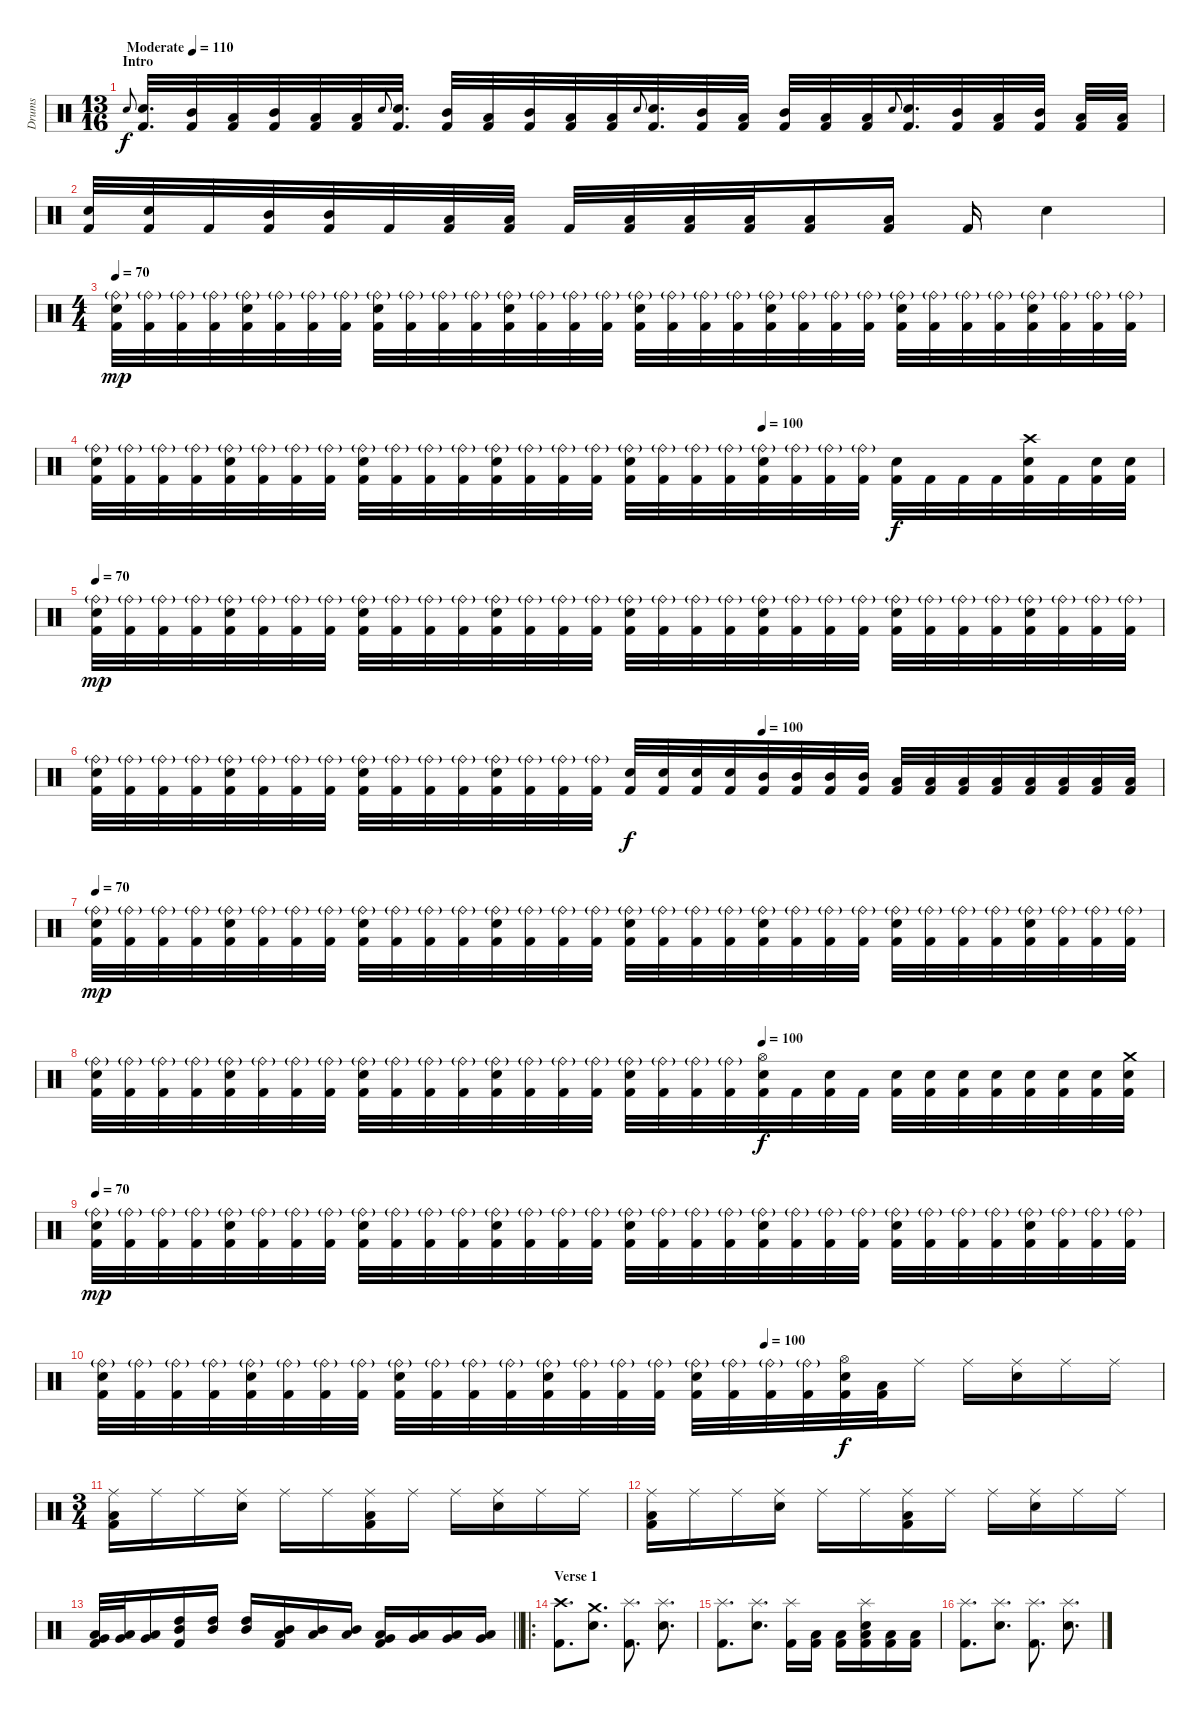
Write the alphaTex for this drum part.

\track ("Drums" "Drums") {instrument percussion}
\staff {score}
\articulation defaults
\ts (13 16)
\section ("" "Intro")
\tempo (110 "Moderate")
\clef neutral
\ks c "Electric Snare (hit)".8{gr onbeat dy f}
("Electric Snare (hit)" "Kick (hit) 2").32{d} ("Mid Tom (hit)" "Kick (hit) 2").32 ("Low Tom (hit)" "Kick (hit) 2").32 ("Mid Tom (hit)" "Kick (hit) 2").32 ("Low Tom (hit)" "Kick (hit) 2").32 ("Low Tom (hit)" "Kick (hit) 2").32 "Electric Snare (hit)".8{gr onbeat} ("Electric Snare (hit)" "Kick (hit) 2").32{d} ("Mid Tom (hit)" "Kick (hit) 2").32 ("Low Tom (hit)" "Kick (hit) 2").32 ("Mid Tom (hit)" "Kick (hit) 2").32 ("Low Tom (hit)" "Kick (hit) 2").32 ("Low Tom (hit)" "Kick (hit) 2").32 "Electric Snare (hit)".8{gr onbeat} ("Electric Snare (hit)" "Kick (hit) 2").32{d} ("Mid Tom (hit)" "Kick (hit) 2").32 ("Low Tom (hit)" "Kick (hit) 2").32 ("Mid Tom (hit)" "Kick (hit) 2").32 ("Low Tom (hit)" "Kick (hit) 2").32 ("Low Tom (hit)" "Kick (hit) 2").32 "Electric Snare (hit)".8{gr onbeat} ("Electric Snare (hit)" "Kick (hit) 2").32{d} ("Mid Tom (hit)" "Kick (hit) 2").32 ("Low Tom (hit)" "Kick (hit) 2").32 ("Mid Tom (hit)" "Kick (hit) 2").32 ("Low Tom (hit)" "Kick (hit) 2").32 ("Low Tom (hit)" "Kick (hit) 2").32 |
("Electric Snare (hit)" "Kick (hit) 2").32 ("Electric Snare (hit)" "Kick (hit) 2").32 "Kick (hit) 2".32 ("Mid Tom (hit)" "Kick (hit) 2").32 ("Mid Tom (hit)" "Kick (hit) 2").32 "Kick (hit) 2".32 ("Low Tom (hit)" "Kick (hit) 2").32 ("Low Tom (hit)" "Kick (hit) 2").32 "Kick (hit) 2".32 ("Low Floor Tom (hit)" "Kick (hit) 2").32 ("Low Floor Tom (hit)" "Kick (hit) 2").32 ("Low Floor Tom (hit)" "Kick (hit) 2").32 ("Low Floor Tom (hit)" "Kick (hit) 2").16 ("Low Floor Tom (hit)" "Kick (hit) 2").16 "Kick (hit) 2".16 "Electric Snare (hit)".4 |
\ts (4 4)
\tempo 70
("Ride (bell)"{g} "Electric Snare (hit)" "Kick (hit) 2").32{dy mp} ("Ride (bell)"{g} "Kick (hit) 2").32 ("Ride (bell)"{g} "Kick (hit) 2").32 ("Ride (bell)"{g} "Kick (hit) 2").32 ("Ride (bell)"{g} "Electric Snare (hit)" "Kick (hit) 2").32 ("Ride (bell)"{g} "Kick (hit) 2").32 ("Ride (bell)"{g} "Kick (hit) 2").32 ("Ride (bell)"{g} "Kick (hit) 2").32 ("Ride (bell)"{g} "Electric Snare (hit)" "Kick (hit) 2").32 ("Ride (bell)"{g} "Kick (hit) 2").32 ("Ride (bell)"{g} "Kick (hit) 2").32 ("Ride (bell)"{g} "Kick (hit) 2").32 ("Ride (bell)"{g} "Electric Snare (hit)" "Kick (hit) 2").32 ("Ride (bell)"{g} "Kick (hit) 2").32 ("Ride (bell)"{g} "Kick (hit) 2").32 ("Ride (bell)"{g} "Kick (hit) 2").32 ("Ride (bell)"{g} "Electric Snare (hit)" "Kick (hit) 2").32 ("Ride (bell)"{g} "Kick (hit) 2").32 ("Ride (bell)"{g} "Kick (hit) 2").32 ("Ride (bell)"{g} "Kick (hit) 2").32 ("Ride (bell)"{g} "Electric Snare (hit)" "Kick (hit) 2").32 ("Ride (bell)"{g} "Kick (hit) 2").32 ("Ride (bell)"{g} "Kick (hit) 2").32 ("Ride (bell)"{g} "Kick (hit) 2").32 ("Ride (bell)"{g} "Electric Snare (hit)" "Kick (hit) 2").32 ("Ride (bell)"{g} "Kick (hit) 2").32 ("Ride (bell)"{g} "Kick (hit) 2").32 ("Ride (bell)"{g} "Kick (hit) 2").32 ("Ride (bell)"{g} "Electric Snare (hit)" "Kick (hit) 2").32 ("Ride (bell)"{g} "Kick (hit) 2").32 ("Ride (bell)"{g} "Kick (hit) 2").32 ("Ride (bell)"{g} "Kick (hit) 2").32 |
\tempo (100 0.625)
("Ride (bell)"{g} "Electric Snare (hit)" "Kick (hit) 2").32 ("Ride (bell)"{g} "Kick (hit) 2").32 ("Ride (bell)"{g} "Kick (hit) 2").32 ("Ride (bell)"{g} "Kick (hit) 2").32 ("Ride (bell)"{g} "Electric Snare (hit)" "Kick (hit) 2").32 ("Ride (bell)"{g} "Kick (hit) 2").32 ("Ride (bell)"{g} "Kick (hit) 2").32 ("Ride (bell)"{g} "Kick (hit) 2").32 ("Ride (bell)"{g} "Electric Snare (hit)" "Kick (hit) 2").32 ("Ride (bell)"{g} "Kick (hit) 2").32 ("Ride (bell)"{g} "Kick (hit) 2").32 ("Ride (bell)"{g} "Kick (hit) 2").32 ("Ride (bell)"{g} "Electric Snare (hit)" "Kick (hit) 2").32 ("Ride (bell)"{g} "Kick (hit) 2").32 ("Ride (bell)"{g} "Kick (hit) 2").32 ("Ride (bell)"{g} "Kick (hit) 2").32 ("Ride (bell)"{g} "Electric Snare (hit)" "Kick (hit) 2").32 ("Ride (bell)"{g} "Kick (hit) 2").32 ("Ride (bell)"{g} "Kick (hit) 2").32 ("Ride (bell)"{g} "Kick (hit) 2").32 ("Ride (bell)"{g} "Electric Snare (hit)" "Kick (hit) 2").32 ("Ride (bell)"{g} "Kick (hit) 2").32 ("Ride (bell)"{g} "Kick (hit) 2").32 ("Ride (bell)"{g} "Kick (hit) 2").32 ("Electric Snare (hit)" "Kick (hit) 2").32{dy f} "Kick (hit) 2".32 "Kick (hit) 2".32 "Kick (hit) 2".32 ("Crash high (hit)" "Electric Snare (hit)" "Kick (hit) 2").32 "Kick (hit) 2".32 ("Electric Snare (hit)" "Kick (hit) 2").32 ("Electric Snare (hit)" "Kick (hit) 2").32 |
\tempo 70
("Ride (bell)"{g} "Electric Snare (hit)" "Kick (hit) 2").32{dy mp} ("Ride (bell)"{g} "Kick (hit) 2").32 ("Ride (bell)"{g} "Kick (hit) 2").32 ("Ride (bell)"{g} "Kick (hit) 2").32 ("Ride (bell)"{g} "Electric Snare (hit)" "Kick (hit) 2").32 ("Ride (bell)"{g} "Kick (hit) 2").32 ("Ride (bell)"{g} "Kick (hit) 2").32 ("Ride (bell)"{g} "Kick (hit) 2").32 ("Ride (bell)"{g} "Electric Snare (hit)" "Kick (hit) 2").32 ("Ride (bell)"{g} "Kick (hit) 2").32 ("Ride (bell)"{g} "Kick (hit) 2").32 ("Ride (bell)"{g} "Kick (hit) 2").32 ("Ride (bell)"{g} "Electric Snare (hit)" "Kick (hit) 2").32 ("Ride (bell)"{g} "Kick (hit) 2").32 ("Ride (bell)"{g} "Kick (hit) 2").32 ("Ride (bell)"{g} "Kick (hit) 2").32 ("Ride (bell)"{g} "Electric Snare (hit)" "Kick (hit) 2").32 ("Ride (bell)"{g} "Kick (hit) 2").32 ("Ride (bell)"{g} "Kick (hit) 2").32 ("Ride (bell)"{g} "Kick (hit) 2").32 ("Ride (bell)"{g} "Electric Snare (hit)" "Kick (hit) 2").32 ("Ride (bell)"{g} "Kick (hit) 2").32 ("Ride (bell)"{g} "Kick (hit) 2").32 ("Ride (bell)"{g} "Kick (hit) 2").32 ("Ride (bell)"{g} "Electric Snare (hit)" "Kick (hit) 2").32 ("Ride (bell)"{g} "Kick (hit) 2").32 ("Ride (bell)"{g} "Kick (hit) 2").32 ("Ride (bell)"{g} "Kick (hit) 2").32 ("Ride (bell)"{g} "Electric Snare (hit)" "Kick (hit) 2").32 ("Ride (bell)"{g} "Kick (hit) 2").32 ("Ride (bell)"{g} "Kick (hit) 2").32 ("Ride (bell)"{g} "Kick (hit) 2").32 |
\tempo (100 0.625)
("Ride (bell)"{g} "Electric Snare (hit)" "Kick (hit) 2").32 ("Ride (bell)"{g} "Kick (hit) 2").32 ("Ride (bell)"{g} "Kick (hit) 2").32 ("Ride (bell)"{g} "Kick (hit) 2").32 ("Ride (bell)"{g} "Electric Snare (hit)" "Kick (hit) 2").32 ("Ride (bell)"{g} "Kick (hit) 2").32 ("Ride (bell)"{g} "Kick (hit) 2").32 ("Ride (bell)"{g} "Kick (hit) 2").32 ("Ride (bell)"{g} "Electric Snare (hit)" "Kick (hit) 2").32 ("Ride (bell)"{g} "Kick (hit) 2").32 ("Ride (bell)"{g} "Kick (hit) 2").32 ("Ride (bell)"{g} "Kick (hit) 2").32 ("Ride (bell)"{g} "Electric Snare (hit)" "Kick (hit) 2").32 ("Ride (bell)"{g} "Kick (hit) 2").32 ("Ride (bell)"{g} "Kick (hit) 2").32 ("Ride (bell)"{g} "Kick (hit) 2").32 ("Electric Snare (hit)" "Kick (hit) 2").32{dy f} ("Electric Snare (hit)" "Kick (hit) 2").32 ("Electric Snare (hit)" "Kick (hit) 2").32 ("Electric Snare (hit)" "Kick (hit) 2").32 ("Mid Tom (hit)" "Kick (hit) 2").32 ("Mid Tom (hit)" "Kick (hit) 2").32 ("Mid Tom (hit)" "Kick (hit) 2").32 ("Mid Tom (hit)" "Kick (hit) 2").32 ("Low Tom (hit)" "Kick (hit) 2").32 ("Low Tom (hit)" "Kick (hit) 2").32 ("Low Tom (hit)" "Kick (hit) 2").32 ("Low Tom (hit)" "Kick (hit) 2").32 ("Low Floor Tom (hit)" "Kick (hit) 2").32 ("Low Floor Tom (hit)" "Kick (hit) 2").32 ("Low Floor Tom (hit)" "Kick (hit) 2").32 ("Low Floor Tom (hit)" "Kick (hit) 2").32 |
\tempo 70
("Ride (bell)"{g} "Electric Snare (hit)" "Kick (hit) 2").32{dy mp} ("Ride (bell)"{g} "Kick (hit) 2").32 ("Ride (bell)"{g} "Kick (hit) 2").32 ("Ride (bell)"{g} "Kick (hit) 2").32 ("Ride (bell)"{g} "Electric Snare (hit)" "Kick (hit) 2").32 ("Ride (bell)"{g} "Kick (hit) 2").32 ("Ride (bell)"{g} "Kick (hit) 2").32 ("Ride (bell)"{g} "Kick (hit) 2").32 ("Ride (bell)"{g} "Electric Snare (hit)" "Kick (hit) 2").32 ("Ride (bell)"{g} "Kick (hit) 2").32 ("Ride (bell)"{g} "Kick (hit) 2").32 ("Ride (bell)"{g} "Kick (hit) 2").32 ("Ride (bell)"{g} "Electric Snare (hit)" "Kick (hit) 2").32 ("Ride (bell)"{g} "Kick (hit) 2").32 ("Ride (bell)"{g} "Kick (hit) 2").32 ("Ride (bell)"{g} "Kick (hit) 2").32 ("Ride (bell)"{g} "Electric Snare (hit)" "Kick (hit) 2").32 ("Ride (bell)"{g} "Kick (hit) 2").32 ("Ride (bell)"{g} "Kick (hit) 2").32 ("Ride (bell)"{g} "Kick (hit) 2").32 ("Ride (bell)"{g} "Electric Snare (hit)" "Kick (hit) 2").32 ("Ride (bell)"{g} "Kick (hit) 2").32 ("Ride (bell)"{g} "Kick (hit) 2").32 ("Ride (bell)"{g} "Kick (hit) 2").32 ("Ride (bell)"{g} "Electric Snare (hit)" "Kick (hit) 2").32 ("Ride (bell)"{g} "Kick (hit) 2").32 ("Ride (bell)"{g} "Kick (hit) 2").32 ("Ride (bell)"{g} "Kick (hit) 2").32 ("Ride (bell)"{g} "Electric Snare (hit)" "Kick (hit) 2").32 ("Ride (bell)"{g} "Kick (hit) 2").32 ("Ride (bell)"{g} "Kick (hit) 2").32 ("Ride (bell)"{g} "Kick (hit) 2").32 |
\tempo (100 0.625)
("Ride (bell)"{g} "Electric Snare (hit)" "Kick (hit) 2").32 ("Ride (bell)"{g} "Kick (hit) 2").32 ("Ride (bell)"{g} "Kick (hit) 2").32 ("Ride (bell)"{g} "Kick (hit) 2").32 ("Ride (bell)"{g} "Electric Snare (hit)" "Kick (hit) 2").32 ("Ride (bell)"{g} "Kick (hit) 2").32 ("Ride (bell)"{g} "Kick (hit) 2").32 ("Ride (bell)"{g} "Kick (hit) 2").32 ("Ride (bell)"{g} "Electric Snare (hit)" "Kick (hit) 2").32 ("Ride (bell)"{g} "Kick (hit) 2").32 ("Ride (bell)"{g} "Kick (hit) 2").32 ("Ride (bell)"{g} "Kick (hit) 2").32 ("Ride (bell)"{g} "Electric Snare (hit)" "Kick (hit) 2").32 ("Ride (bell)"{g} "Kick (hit) 2").32 ("Ride (bell)"{g} "Kick (hit) 2").32 ("Ride (bell)"{g} "Kick (hit) 2").32 ("Ride (bell)"{g} "Electric Snare (hit)" "Kick (hit) 2").32 ("Ride (bell)"{g} "Kick (hit) 2").32 ("Ride (bell)"{g} "Kick (hit) 2").32 ("Ride (bell)"{g} "Kick (hit) 2").32 ("Hi-Hat (open)" "Electric Snare (hit)" "Kick (hit) 2").32{dy f} "Kick (hit) 2".32 ("Electric Snare (hit)" "Kick (hit) 2").32 "Kick (hit) 2".32 ("Electric Snare (hit)" "Kick (hit) 2").32 ("Electric Snare (hit)" "Kick (hit) 2").32 ("Electric Snare (hit)" "Kick (hit) 2").32 ("Electric Snare (hit)" "Kick (hit) 2").32 ("Electric Snare (hit)" "Kick (hit) 2").32 ("Electric Snare (hit)" "Kick (hit) 2").32 ("Electric Snare (hit)" "Kick (hit) 2").32 ("Crash medium (hit)" "Electric Snare (hit)" "Kick (hit) 2").32 |
\tempo 70
("Ride (bell)"{g} "Electric Snare (hit)" "Kick (hit) 2").32{dy mp} ("Ride (bell)"{g} "Kick (hit) 2").32 ("Ride (bell)"{g} "Kick (hit) 2").32 ("Ride (bell)"{g} "Kick (hit) 2").32 ("Ride (bell)"{g} "Electric Snare (hit)" "Kick (hit) 2").32 ("Ride (bell)"{g} "Kick (hit) 2").32 ("Ride (bell)"{g} "Kick (hit) 2").32 ("Ride (bell)"{g} "Kick (hit) 2").32 ("Ride (bell)"{g} "Electric Snare (hit)" "Kick (hit) 2").32 ("Ride (bell)"{g} "Kick (hit) 2").32 ("Ride (bell)"{g} "Kick (hit) 2").32 ("Ride (bell)"{g} "Kick (hit) 2").32 ("Ride (bell)"{g} "Electric Snare (hit)" "Kick (hit) 2").32 ("Ride (bell)"{g} "Kick (hit) 2").32 ("Ride (bell)"{g} "Kick (hit) 2").32 ("Ride (bell)"{g} "Kick (hit) 2").32 ("Ride (bell)"{g} "Electric Snare (hit)" "Kick (hit) 2").32 ("Ride (bell)"{g} "Kick (hit) 2").32 ("Ride (bell)"{g} "Kick (hit) 2").32 ("Ride (bell)"{g} "Kick (hit) 2").32 ("Ride (bell)"{g} "Electric Snare (hit)" "Kick (hit) 2").32 ("Ride (bell)"{g} "Kick (hit) 2").32 ("Ride (bell)"{g} "Kick (hit) 2").32 ("Ride (bell)"{g} "Kick (hit) 2").32 ("Ride (bell)"{g} "Electric Snare (hit)" "Kick (hit) 2").32 ("Ride (bell)"{g} "Kick (hit) 2").32 ("Ride (bell)"{g} "Kick (hit) 2").32 ("Ride (bell)"{g} "Kick (hit) 2").32 ("Ride (bell)"{g} "Electric Snare (hit)" "Kick (hit) 2").32 ("Ride (bell)"{g} "Kick (hit) 2").32 ("Ride (bell)"{g} "Kick (hit) 2").32 ("Ride (bell)"{g} "Kick (hit) 2").32 |
\tempo (100 0.625)
("Ride (bell)"{g} "Electric Snare (hit)" "Kick (hit) 2").32 ("Ride (bell)"{g} "Kick (hit) 2").32 ("Ride (bell)"{g} "Kick (hit) 2").32 ("Ride (bell)"{g} "Kick (hit) 2").32 ("Ride (bell)"{g} "Electric Snare (hit)" "Kick (hit) 2").32 ("Ride (bell)"{g} "Kick (hit) 2").32 ("Ride (bell)"{g} "Kick (hit) 2").32 ("Ride (bell)"{g} "Kick (hit) 2").32 ("Ride (bell)"{g} "Electric Snare (hit)" "Kick (hit) 2").32 ("Ride (bell)"{g} "Kick (hit) 2").32 ("Ride (bell)"{g} "Kick (hit) 2").32 ("Ride (bell)"{g} "Kick (hit) 2").32 ("Ride (bell)"{g} "Electric Snare (hit)" "Kick (hit) 2").32 ("Ride (bell)"{g} "Kick (hit) 2").32 ("Ride (bell)"{g} "Kick (hit) 2").32 ("Ride (bell)"{g} "Kick (hit) 2").32 ("Ride (bell)"{g} "Electric Snare (hit)" "Kick (hit) 2").32 ("Ride (bell)"{g} "Kick (hit) 2").32 ("Ride (bell)"{g} "Kick (hit) 2").32 ("Ride (bell)"{g} "Kick (hit) 2").32 ("Hi-Hat (open)" "Electric Snare (hit)" "Kick (hit) 2").32{dy f} ("Low Floor Tom (hit)" "Kick (hit) 2").32 "Ride (middle)".16 "Ride (middle)".16 ("Ride (middle)" "Electric Snare (hit)").16 "Ride (middle)".16 "Ride (middle)".16 |
\ts (3 4)
("Ride (middle)" "Low Floor Tom (hit)" "Kick (hit) 2").16 "Ride (middle)".16 "Ride (middle)".16 ("Ride (middle)" "Electric Snare (hit)").16 "Ride (middle)".16 "Ride (middle)".16 ("Ride (middle)" "Low Floor Tom (hit)" "Kick (hit) 2").16 "Ride (middle)".16 "Ride (middle)".16 ("Ride (middle)" "Electric Snare (hit)").16 "Ride (middle)".16 "Ride (middle)".16 |
("Ride (middle)" "Low Floor Tom (hit)" "Kick (hit) 2").16 "Ride (middle)".16 "Ride (middle)".16 ("Ride (middle)" "Electric Snare (hit)").16 "Ride (middle)".16 "Ride (middle)".16 ("Ride (middle)" "Low Floor Tom (hit)" "Kick (hit) 2").16 "Ride (middle)".16 "Ride (middle)".16 ("Ride (middle)" "Electric Snare (hit)").16 "Ride (middle)".16 "Ride (middle)".16 |
\barLineRight lightlight
("Very Low Tom (hit)" "Low Floor Tom (hit)" "Kick (hit) 2").32 ("Very Low Tom (hit)" "Low Floor Tom (hit)").32 ("Very Low Tom (hit)" "Low Floor Tom (hit)").16 ("High Tom (hit)" "Mid Tom (hit)" "Kick (hit) 2").16 ("High Tom (hit)" "Mid Tom (hit)").16 ("High Tom (hit)" "Mid Tom (hit)").16 ("Mid Tom (hit)" "Low Tom (hit)" "Kick (hit) 2").16 ("Mid Tom (hit)" "Low Tom (hit)").16 ("Mid Tom (hit)" "Low Tom (hit)").16 ("Low Tom (hit)" "Very Low Tom (hit)" "Kick (hit) 2").16 ("Low Tom (hit)" "Very Low Tom (hit)").16 ("Low Tom (hit)" "Very Low Tom (hit)").16 ("Low Tom (hit)" "Very Low Tom (hit)").16 |
\ro
\section ("" "Verse 1")
("Crash high (hit)" "Kick (hit) 2").8{d} ("Crash medium (hit)" "Electric Snare (hit)").8{d} ("Splash (hit)" "Kick (hit) 2").8{d} ("Splash (hit)" "Electric Snare (hit)").8{d} |
("Splash (hit)" "Kick (hit) 2").8{d} ("Splash (hit)" "Electric Snare (hit)").8{d} ("Splash (hit)" "Kick (hit) 2").16 ("Low Floor Tom (hit)" "Kick (hit) 2").16 ("Low Floor Tom (hit)" "Kick (hit) 2").16 ("Splash (hit)" "Low Floor Tom (hit)" "Electric Snare (hit)" "Kick (hit) 2").16 ("Low Floor Tom (hit)" "Kick (hit) 2").16 ("Low Floor Tom (hit)" "Kick (hit) 2").16 |
("Splash (hit)" "Kick (hit) 2").8{d} ("Splash (hit)" "Electric Snare (hit)").8{d} ("Splash (hit)" "Kick (hit) 2").8{d} ("Splash (hit)" "Electric Snare (hit)").8{d}
